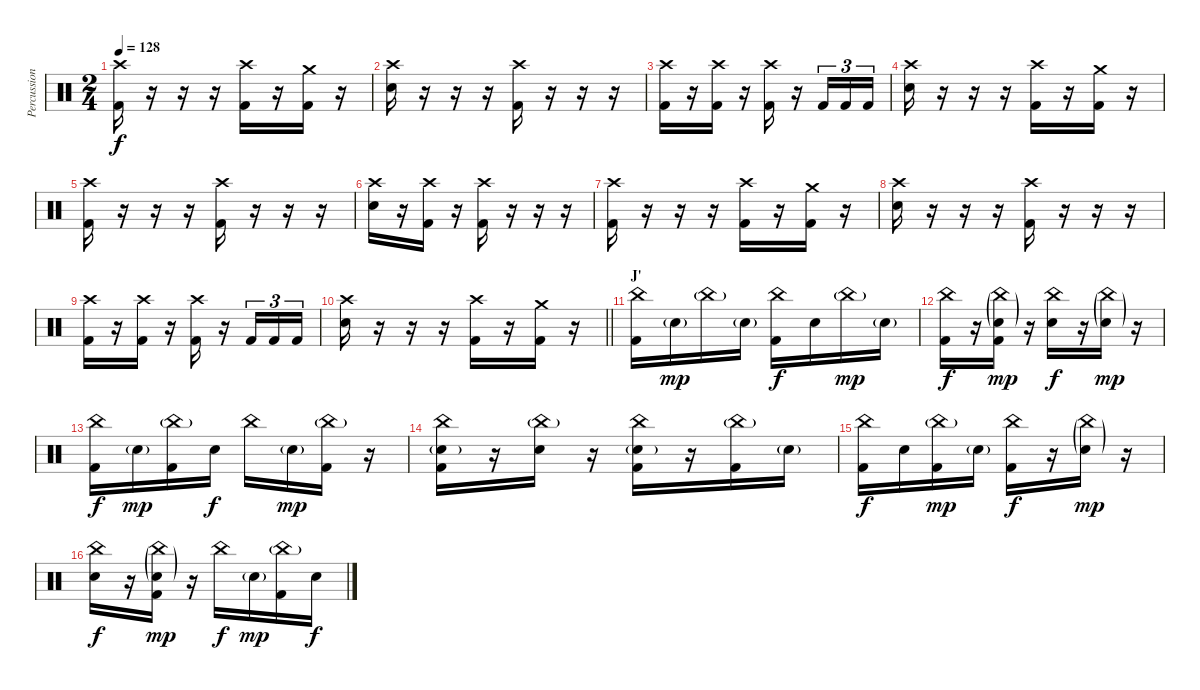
\track ("Percussion" "Percussion") {instrument percussion}
\staff {score}
\articulation defaults
\ts (2 4)
\tempo 128
\clef neutral
\ks c
("Crash high (hit)" "Kick (hit) 2").16{dy f} r.16 r.16 r.16 ("Crash high (hit)" "Kick (hit) 2").16 r.16 ("Crash medium (hit)" "Kick (hit) 2").16 r.16 |
("Crash high (hit)" "Snare (hit) 2").16 r.16 r.16 r.16 ("Crash high (hit)" "Kick (hit) 2").16 r.16 r.16 r.16 |
("Crash high (hit)" "Kick (hit) 2").16 r.16 ("Crash high (hit)" "Kick (hit) 2").16 r.16 ("Crash high (hit)" "Kick (hit) 2").16 r.16 "Kick (hit) 2".16{tu (3 2)} "Kick (hit) 2".16{tu (3 2)} "Kick (hit) 2".16{tu (3 2)} |
("Crash high (hit)" "Snare (hit) 2").16 r.16 r.16 r.16 ("Crash high (hit)" "Kick (hit) 2").16 r.16 ("Crash medium (hit)" "Kick (hit) 2").16 r.16 |
("Crash high (hit)" "Kick (hit) 2").16 r.16 r.16 r.16 ("Crash high (hit)" "Kick (hit) 2").16 r.16 r.16 r.16 |
("Crash high (hit)" "Snare (hit) 2").16 r.16 ("Crash high (hit)" "Kick (hit) 2").16 r.16 ("Crash high (hit)" "Kick (hit) 2").16 r.16 r.16 r.16 |
("Crash high (hit)" "Kick (hit) 2").16 r.16 r.16 r.16 ("Crash high (hit)" "Kick (hit) 2").16 r.16 ("Crash medium (hit)" "Kick (hit) 2").16 r.16 |
("Crash high (hit)" "Snare (hit) 2").16 r.16 r.16 r.16 ("Crash high (hit)" "Kick (hit) 2").16 r.16 r.16 r.16 |
("Crash high (hit)" "Kick (hit) 2").16 r.16 ("Crash high (hit)" "Kick (hit) 2").16 r.16 ("Crash high (hit)" "Kick (hit) 2").16 r.16 "Kick (hit) 2".16{tu (3 2)} "Kick (hit) 2".16{tu (3 2)} "Kick (hit) 2".16{tu (3 2)} |
\barLineRight lightlight
("Crash high (hit)" "Snare (hit) 2").16 r.16 r.16 r.16 ("Crash high (hit)" "Kick (hit) 2").16 r.16 ("Crash medium (hit)" "Kick (hit) 2").16 r.16 |
\section ("" "J'")
("China (hit)" "Kick (hit) 2").16 "Snare (hit) 2"{g}.16{dy mp} "China (hit)"{g}.16 "Snare (hit) 2"{g}.16 ("China (hit)" "Kick (hit) 2").16{dy f} "Snare (hit) 2".16 "China (hit)"{g}.16{dy mp} "Snare (hit) 2"{g}.16 |
("China (hit)" "Kick (hit) 2").16{dy f} r.16 ("China (hit)"{g} "Snare (hit) 2"{g} "Kick (hit) 2").16{dy mp} r.16 ("China (hit)" "Snare (hit) 2").16{dy f} r.16 ("China (hit)"{g} "Snare (hit) 2"{g}).16{dy mp} r.16 |
("China (hit)" "Kick (hit) 2").16{dy f} "Snare (hit) 2"{g}.16{dy mp} ("China (hit)"{g} "Kick (hit) 2").16 "Snare (hit) 2".16{dy f} "China (hit)".16 "Snare (hit) 2"{g}.16{dy mp} ("China (hit)"{g} "Kick (hit) 2").16 r.16 |
("China (hit)" "Snare (hit) 2"{g} "Kick (hit) 2").16 r.16 ("China (hit)"{g} "Snare (hit) 2").16 r.16 ("China (hit)" "Snare (hit) 2"{g} "Kick (hit) 2").16 r.16 ("China (hit)"{g} "Kick (hit) 2").16 "Snare (hit) 2"{g}.16 |
("China (hit)" "Kick (hit) 2").16{dy f} "Snare (hit) 2".16 ("China (hit)"{g} "Kick (hit) 2").16{dy mp} "Snare (hit) 2"{g}.16 ("China (hit)" "Kick (hit) 2").16{dy f} r.16 ("China (hit)"{g} "Snare (hit) 2"{g}).16{dy mp} r.16 |
("China (hit)" "Snare (hit) 2").16{dy f} r.16 ("China (hit)"{g} "Snare (hit) 2"{g} "Kick (hit) 2").16{dy mp} r.16 "China (hit)".16{dy f} "Snare (hit) 2"{g}.16{dy mp} ("China (hit)"{g} "Kick (hit) 2").16 "Snare (hit) 2".16{dy f}
